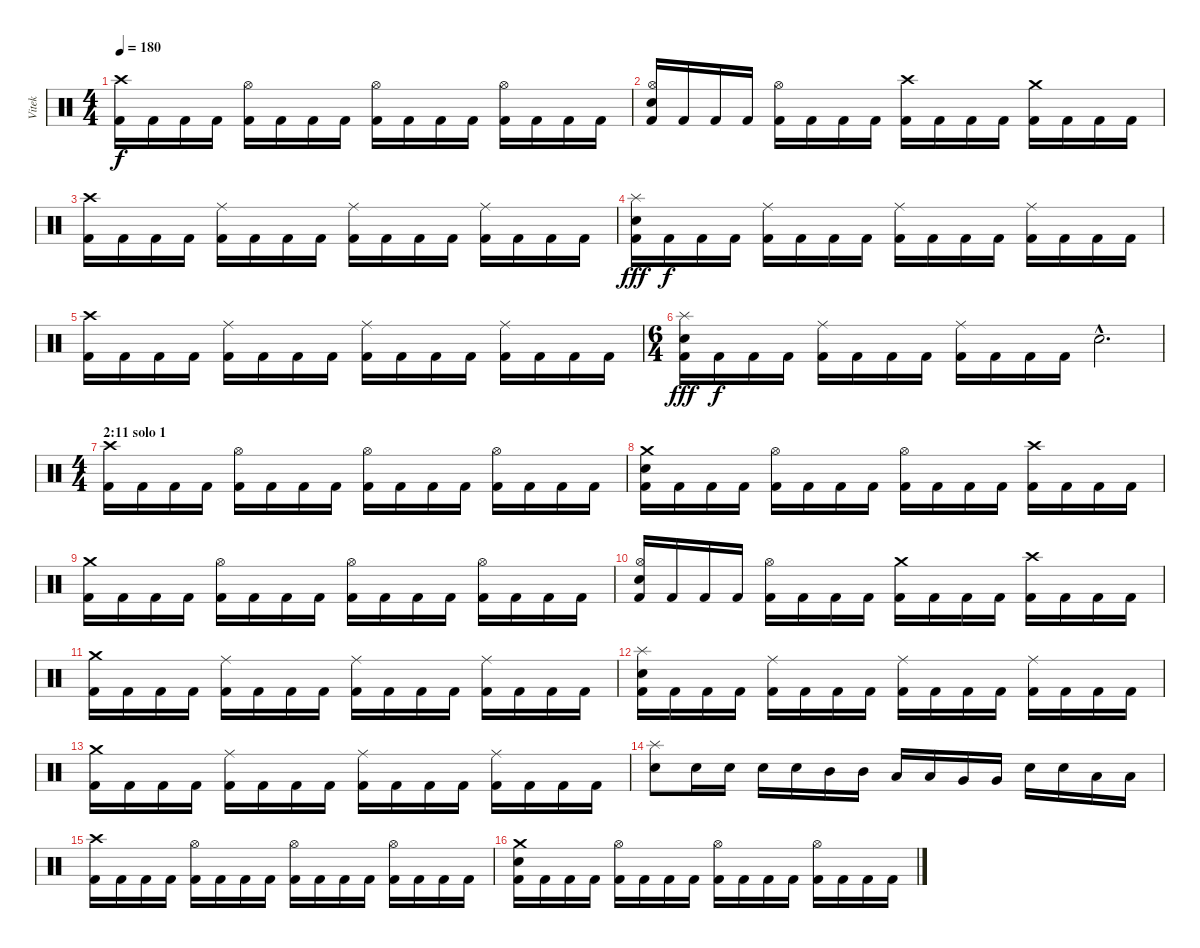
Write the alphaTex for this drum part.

\track ("Vitek" "Vitek") {instrument percussion}
\staff {score}
\articulation defaults
\ts (4 4)
\tempo 180
\clef neutral
\ks c
("Crash high (hit)" "Kick (hit) 2").16{dy f} "Kick (hit) 2".16 "Kick (hit) 2".16 "Kick (hit) 2".16 ("Hi-Hat (open)" "Kick (hit) 2").16 "Kick (hit) 2".16 "Kick (hit) 2".16 "Kick (hit) 2".16 ("Hi-Hat (open)" "Kick (hit) 2").16 "Kick (hit) 2".16 "Kick (hit) 2".16 "Kick (hit) 2".16 ("Hi-Hat (open)" "Kick (hit) 2").16 "Kick (hit) 2".16 "Kick (hit) 2".16 "Kick (hit) 2".16 |
("Hi-Hat (open)" "Electric Snare (hit)" "Kick (hit) 2").16 "Kick (hit) 2".16 "Kick (hit) 2".16 "Kick (hit) 2".16 ("Hi-Hat (open)" "Kick (hit) 2").16 "Kick (hit) 2".16 "Kick (hit) 2".16 "Kick (hit) 2".16 ("Crash high (hit)" "Kick (hit) 2").16 "Kick (hit) 2".16 "Kick (hit) 2".16 "Kick (hit) 2".16 ("Crash medium (hit)" "Kick (hit) 2").16 "Kick (hit) 2".16 "Kick (hit) 2".16 "Kick (hit) 2".16 |
("Crash high (hit)" "Kick (hit) 2").16 "Kick (hit) 2".16 "Kick (hit) 2".16 "Kick (hit) 2".16 ("Ride (middle)" "Kick (hit) 2").16 "Kick (hit) 2".16 "Kick (hit) 2".16 "Kick (hit) 2".16 ("Ride (middle)" "Kick (hit) 2").16 "Kick (hit) 2".16 "Kick (hit) 2".16 "Kick (hit) 2".16 ("Ride (middle)" "Kick (hit) 2").16 "Kick (hit) 2".16 "Kick (hit) 2".16 "Kick (hit) 2".16 |
("Splash (hit)" "Electric Snare (hit)" "Kick (hit) 2").16{dy fff} "Kick (hit) 2".16{dy f} "Kick (hit) 2".16 "Kick (hit) 2".16 ("Ride (middle)" "Kick (hit) 2").16 "Kick (hit) 2".16 "Kick (hit) 2".16 "Kick (hit) 2".16 ("Ride (middle)" "Kick (hit) 2").16 "Kick (hit) 2".16 "Kick (hit) 2".16 "Kick (hit) 2".16 ("Ride (middle)" "Kick (hit) 2").16 "Kick (hit) 2".16 "Kick (hit) 2".16 "Kick (hit) 2".16 |
("Crash high (hit)" "Kick (hit) 2").16 "Kick (hit) 2".16 "Kick (hit) 2".16 "Kick (hit) 2".16 ("Ride (middle)" "Kick (hit) 2").16 "Kick (hit) 2".16 "Kick (hit) 2".16 "Kick (hit) 2".16 ("Ride (middle)" "Kick (hit) 2").16 "Kick (hit) 2".16 "Kick (hit) 2".16 "Kick (hit) 2".16 ("Ride (middle)" "Kick (hit) 2").16 "Kick (hit) 2".16 "Kick (hit) 2".16 "Kick (hit) 2".16 |
\ts (6 4)
("Splash (hit)" "Electric Snare (hit)" "Kick (hit) 2").16{dy fff} "Kick (hit) 2".16{dy f} "Kick (hit) 2".16 "Kick (hit) 2".16 ("Ride (middle)" "Kick (hit) 2").16 "Kick (hit) 2".16 "Kick (hit) 2".16 "Kick (hit) 2".16 ("Ride (middle)" "Kick (hit) 2").16 "Kick (hit) 2".16 "Kick (hit) 2".16 "Kick (hit) 2".16 "Electric Snare (hit)"{hac}.2{d} |
\ts (4 4)
\section ("" "2:11 solo 1")
("Crash high (hit)" "Kick (hit) 2").16 "Kick (hit) 2".16 "Kick (hit) 2".16 "Kick (hit) 2".16 ("Hi-Hat (open)" "Kick (hit) 2").16 "Kick (hit) 2".16 "Kick (hit) 2".16 "Kick (hit) 2".16 ("Hi-Hat (open)" "Kick (hit) 2").16 "Kick (hit) 2".16 "Kick (hit) 2".16 "Kick (hit) 2".16 ("Hi-Hat (open)" "Kick (hit) 2").16 "Kick (hit) 2".16 "Kick (hit) 2".16 "Kick (hit) 2".16 |
("Crash medium (hit)" "Electric Snare (hit)" "Kick (hit) 2").16 "Kick (hit) 2".16 "Kick (hit) 2".16 "Kick (hit) 2".16 ("Hi-Hat (open)" "Kick (hit) 2").16 "Kick (hit) 2".16 "Kick (hit) 2".16 "Kick (hit) 2".16 ("Hi-Hat (open)" "Kick (hit) 2").16 "Kick (hit) 2".16 "Kick (hit) 2".16 "Kick (hit) 2".16 ("Crash high (hit)" "Kick (hit) 2").16 "Kick (hit) 2".16 "Kick (hit) 2".16 "Kick (hit) 2".16 |
("Crash medium (hit)" "Kick (hit) 2").16 "Kick (hit) 2".16 "Kick (hit) 2".16 "Kick (hit) 2".16 ("Hi-Hat (open)" "Kick (hit) 2").16 "Kick (hit) 2".16 "Kick (hit) 2".16 "Kick (hit) 2".16 ("Hi-Hat (open)" "Kick (hit) 2").16 "Kick (hit) 2".16 "Kick (hit) 2".16 "Kick (hit) 2".16 ("Hi-Hat (open)" "Kick (hit) 2").16 "Kick (hit) 2".16 "Kick (hit) 2".16 "Kick (hit) 2".16 |
("Hi-Hat (open)" "Electric Snare (hit)" "Kick (hit) 2").16 "Kick (hit) 2".16 "Kick (hit) 2".16 "Kick (hit) 2".16 ("Hi-Hat (open)" "Kick (hit) 2").16 "Kick (hit) 2".16 "Kick (hit) 2".16 "Kick (hit) 2".16 ("Crash medium (hit)" "Kick (hit) 2").16 "Kick (hit) 2".16 "Kick (hit) 2".16 "Kick (hit) 2".16 ("Crash high (hit)" "Kick (hit) 2").16 "Kick (hit) 2".16 "Kick (hit) 2".16 "Kick (hit) 2".16 |
("Crash medium (hit)" "Kick (hit) 2").16 "Kick (hit) 2".16 "Kick (hit) 2".16 "Kick (hit) 2".16 ("Ride (middle)" "Kick (hit) 2").16 "Kick (hit) 2".16 "Kick (hit) 2".16 "Kick (hit) 2".16 ("Ride (middle)" "Kick (hit) 2").16 "Kick (hit) 2".16 "Kick (hit) 2".16 "Kick (hit) 2".16 ("Ride (middle)" "Kick (hit) 2").16 "Kick (hit) 2".16 "Kick (hit) 2".16 "Kick (hit) 2".16 |
("Splash (hit)" "Electric Snare (hit)" "Kick (hit) 2").16 "Kick (hit) 2".16 "Kick (hit) 2".16 "Kick (hit) 2".16 ("Ride (middle)" "Kick (hit) 2").16 "Kick (hit) 2".16 "Kick (hit) 2".16 "Kick (hit) 2".16 ("Ride (middle)" "Kick (hit) 2").16 "Kick (hit) 2".16 "Kick (hit) 2".16 "Kick (hit) 2".16 ("Ride (middle)" "Kick (hit) 2").16 "Kick (hit) 2".16 "Kick (hit) 2".16 "Kick (hit) 2".16 |
("Crash medium (hit)" "Kick (hit) 2").16 "Kick (hit) 2".16 "Kick (hit) 2".16 "Kick (hit) 2".16 ("Ride (middle)" "Kick (hit) 2").16 "Kick (hit) 2".16 "Kick (hit) 2".16 "Kick (hit) 2".16 ("Ride (middle)" "Kick (hit) 2").16 "Kick (hit) 2".16 "Kick (hit) 2".16 "Kick (hit) 2".16 ("Ride (middle)" "Kick (hit) 2").16 "Kick (hit) 2".16 "Kick (hit) 2".16 "Kick (hit) 2".16 |
("Splash (hit)" "Electric Snare (hit)").8 "Electric Snare (hit)".16 "Electric Snare (hit)".16 "Electric Snare (hit)".16 "Electric Snare (hit)".16 "Mid Tom (hit)".16 "Mid Tom (hit)".16 "Low Tom (hit)".16 "Low Tom (hit)".16 "Very Low Tom (hit)".16 "Very Low Tom (hit)".16 "Electric Snare (hit)".16 "Electric Snare (hit)".16 "Low Floor Tom (hit)".16 "Low Floor Tom (hit)".16 |
("Crash high (hit)" "Kick (hit) 2").16 "Kick (hit) 2".16 "Kick (hit) 2".16 "Kick (hit) 2".16 ("Hi-Hat (open)" "Kick (hit) 2").16 "Kick (hit) 2".16 "Kick (hit) 2".16 "Kick (hit) 2".16 ("Hi-Hat (open)" "Kick (hit) 2").16 "Kick (hit) 2".16 "Kick (hit) 2".16 "Kick (hit) 2".16 ("Hi-Hat (open)" "Kick (hit) 2").16 "Kick (hit) 2".16 "Kick (hit) 2".16 "Kick (hit) 2".16 |
("Crash medium (hit)" "Electric Snare (hit)" "Kick (hit) 2").16 "Kick (hit) 2".16 "Kick (hit) 2".16 "Kick (hit) 2".16 ("Hi-Hat (open)" "Kick (hit) 2").16 "Kick (hit) 2".16 "Kick (hit) 2".16 "Kick (hit) 2".16 ("Hi-Hat (open)" "Kick (hit) 2").16 "Kick (hit) 2".16 "Kick (hit) 2".16 "Kick (hit) 2".16 ("Hi-Hat (open)" "Kick (hit) 2").16 "Kick (hit) 2".16 "Kick (hit) 2".16 "Kick (hit) 2".16
